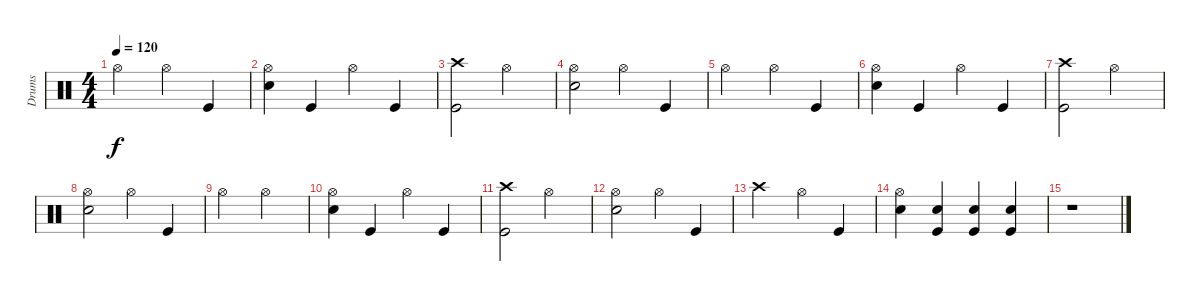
\track ("Drums" "Drums") {instrument percussion}
\staff {score}
\articulation defaults
\ts (4 4)
\tempo 120
\clef neutral
\ks c "Hi-Hat (open)".2{dy f} "Hi-Hat (open)".4 "Kick (hit)".4
|
("Hi-Hat (open)" "Electric Snare (hit)").4 "Kick (hit)".4 "Hi-Hat (open)".4 "Kick (hit)".4 |
("Crash high (hit)" "Kick (hit)").2 "Hi-Hat (open)".2 |
("Hi-Hat (open)" "Electric Snare (hit)").2 "Hi-Hat (open)".4 "Kick (hit)".4 |
"Hi-Hat (open)".2 "Hi-Hat (open)".4 "Kick (hit)".4 |
("Hi-Hat (open)" "Electric Snare (hit)").4 "Kick (hit)".4 "Hi-Hat (open)".4 "Kick (hit)".4 |
("Crash high (hit)" "Kick (hit)").2 "Hi-Hat (open)".2 |
("Hi-Hat (open)" "Electric Snare (hit)").2 "Hi-Hat (open)".4 "Kick (hit)".4 |
"Hi-Hat (open)".2 "Hi-Hat (open)".2 |
("Hi-Hat (open)" "Electric Snare (hit)").4 "Kick (hit)".4 "Hi-Hat (open)".4 "Kick (hit)".4 |
("Crash high (hit)" "Kick (hit)").2 "Hi-Hat (open)".2 |
("Hi-Hat (open)" "Electric Snare (hit)").2 "Hi-Hat (open)".4 "Kick (hit)".4 |
"Crash high (hit)".2 "Hi-Hat (open)".4 "Kick (hit)".4 |
("Hi-Hat (open)" "Electric Snare (hit)").4 ("Electric Snare (hit)" "Kick (hit)").4 ("Electric Snare (hit)" "Kick (hit)").4 ("Electric Snare (hit)" "Kick (hit)").4 |
r.1
